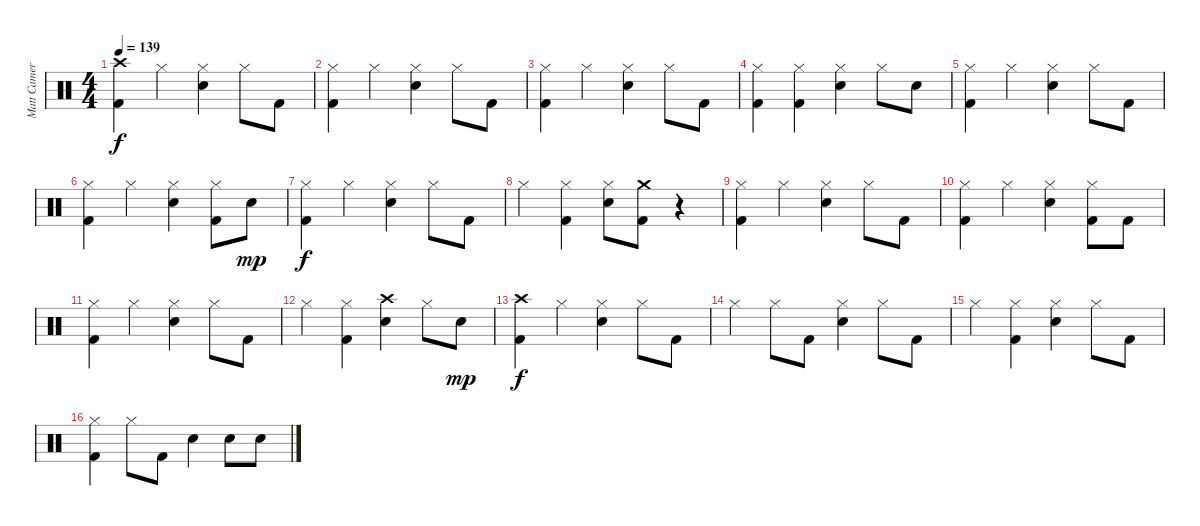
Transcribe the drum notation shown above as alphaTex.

\track ("Matt Cameron" "Matt Camer") {instrument percussion}
\staff {score}
\articulation defaults
\ts (4 4)
\tempo 139
\clef neutral
\ks c
("Crash high (hit)" "Kick (hit) 2").4{dy f} "Hi-Hat (closed)".4 ("Hi-Hat (closed)" "Snare (hit) 2").4 "Hi-Hat (closed)".8 "Kick (hit) 2".8 |
("Hi-Hat (closed)" "Kick (hit) 2").4 "Hi-Hat (closed)".4 ("Hi-Hat (closed)" "Snare (hit) 2").4 "Hi-Hat (closed)".8 "Kick (hit) 2".8 |
("Hi-Hat (closed)" "Kick (hit) 2").4 "Hi-Hat (closed)".4 ("Hi-Hat (closed)" "Snare (hit) 2").4 "Hi-Hat (closed)".8 "Kick (hit) 2".8 |
("Hi-Hat (closed)" "Kick (hit) 2").4 ("Hi-Hat (closed)" "Kick (hit) 2").4 ("Hi-Hat (closed)" "Snare (hit) 2").4 "Hi-Hat (closed)".8 "Snare (hit) 2".8 |
("Hi-Hat (closed)" "Kick (hit) 2").4 "Hi-Hat (closed)".4 ("Hi-Hat (closed)" "Snare (hit) 2").4 "Hi-Hat (closed)".8 "Kick (hit) 2".8 |
("Hi-Hat (closed)" "Kick (hit) 2").4 "Hi-Hat (closed)".4 ("Hi-Hat (closed)" "Snare (hit) 2").4 ("Hi-Hat (closed)" "Kick (hit) 2").8 "Snare (hit) 2".8{dy mp} |
("Hi-Hat (closed)" "Kick (hit) 2").4{dy f} "Hi-Hat (closed)".4 ("Hi-Hat (closed)" "Snare (hit) 2").4 "Hi-Hat (closed)".8 "Kick (hit) 2".8 |
"Hi-Hat (closed)".4 ("Hi-Hat (closed)" "Kick (hit) 2").4 ("Hi-Hat (closed)" "Snare (hit) 2").8 ("Crash medium (hit)" "Kick (hit) 2").8 r.4 |
("Hi-Hat (closed)" "Kick (hit) 2").4 "Hi-Hat (closed)".4 ("Hi-Hat (closed)" "Snare (hit) 2").4 "Hi-Hat (closed)".8 "Kick (hit) 2".8 |
("Hi-Hat (closed)" "Kick (hit) 2").4 "Hi-Hat (closed)".4 ("Hi-Hat (closed)" "Snare (hit) 2").4 ("Hi-Hat (closed)" "Kick (hit) 2").8 "Kick (hit) 2".8 |
("Hi-Hat (closed)" "Kick (hit) 2").4 "Hi-Hat (closed)".4 ("Hi-Hat (closed)" "Snare (hit) 2").4 "Hi-Hat (closed)".8 "Kick (hit) 2".8 |
"Hi-Hat (closed)".4 ("Hi-Hat (closed)" "Kick (hit) 2").4 ("Crash high (hit)" "Snare (hit) 2").4 "Hi-Hat (closed)".8 "Snare (hit) 2".8{dy mp} |
("Crash high (hit)" "Kick (hit) 2").4{dy f} "Hi-Hat (closed)".4 ("Hi-Hat (closed)" "Snare (hit) 2").4 "Hi-Hat (closed)".8 "Kick (hit) 2".8 |
"Hi-Hat (closed)".4 "Hi-Hat (closed)".8 "Kick (hit) 2".8 ("Hi-Hat (closed)" "Snare (hit) 2").4 "Hi-Hat (closed)".8 "Kick (hit) 2".8 |
"Hi-Hat (closed)".4 ("Hi-Hat (closed)" "Kick (hit) 2").4 ("Hi-Hat (closed)" "Snare (hit) 2").4 "Hi-Hat (closed)".8 "Kick (hit) 2".8 |
("Hi-Hat (closed)" "Kick (hit) 2").4 "Hi-Hat (closed)".8 "Kick (hit) 2".8 "Snare (hit) 2".4 "Snare (hit) 2".8 "Snare (hit) 2".8
